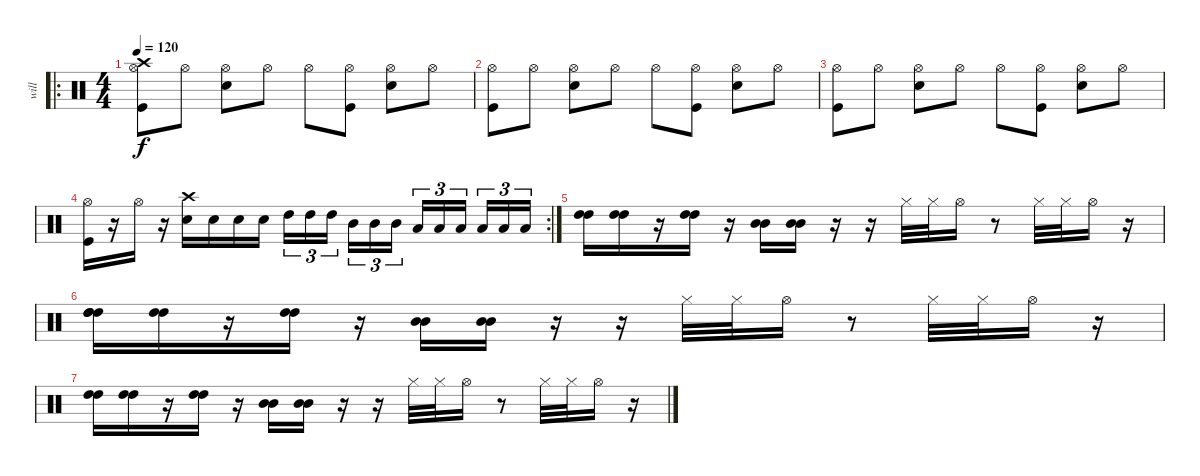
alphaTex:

\track ("will" "will") {instrument percussion}
\staff {score}
\articulation defaults
\ro
\ts (4 4)
\tempo 120
\clef neutral
\ks c
("Crash high (hit)" "Hi-Hat (open)" "Kick (hit)").8{dy f} "Hi-Hat (open)".8 ("Hi-Hat (open)" "Electric Snare (hit)").8 "Hi-Hat (open)".8 "Hi-Hat (open)".8 ("Hi-Hat (open)" "Kick (hit)").8 ("Hi-Hat (open)" "Electric Snare (hit)").8 "Hi-Hat (open)".8 |
("Hi-Hat (open)" "Kick (hit)").8 "Hi-Hat (open)".8 ("Hi-Hat (open)" "Electric Snare (hit)").8 "Hi-Hat (open)".8 "Hi-Hat (open)".8 ("Hi-Hat (open)" "Kick (hit)").8 ("Hi-Hat (open)" "Electric Snare (hit)").8 "Hi-Hat (open)".8 |
("Hi-Hat (open)" "Kick (hit)").8 "Hi-Hat (open)".8 ("Hi-Hat (open)" "Electric Snare (hit)").8 "Hi-Hat (open)".8 "Hi-Hat (open)".8 ("Hi-Hat (open)" "Kick (hit)").8 ("Hi-Hat (open)" "Electric Snare (hit)").8 "Hi-Hat (open)".8 |
\rc 2
("Hi-Hat (open)" "Kick (hit)").16 r.16 "Hi-Hat (open)".16 r.16 ("Crash high (hit)" "Electric Snare (hit)").16 "Electric Snare (hit)".16 "Electric Snare (hit)".16 "Electric Snare (hit)".16 "High Tom (hit)".16{tu (3 2)} "High Tom (hit)".16{tu (3 2)} "High Tom (hit)".16{tu (3 2)} "Mid Tom (hit)".16{tu (3 2)} "Mid Tom (hit)".16{tu (3 2)} "Mid Tom (hit)".16{tu (3 2)} "Low Tom (hit)".16{tu (3 2)} "Low Tom (hit)".16{tu (3 2)} "Low Tom (hit)".16{tu (3 2)} "Low Tom (hit)".16{tu (3 2)} "Low Tom (hit)".16{tu (3 2)} "Low Tom (hit)".16{tu (3 2)} |
("High Tom (hit)" "High Tom (hit)").16 ("High Tom (hit)" "High Tom (hit)").16 r.16 ("High Tom (hit)" "High Tom (hit)").16 r.16 ("Mid Tom (hit)" "Mid Tom (hit)").16 ("Mid Tom (hit)" "Mid Tom (hit)").16 r.16 r.16 "Hi-Hat (closed)".32 "Hi-Hat (closed)".32 "Hi-Hat (open)".16 r.8 "Hi-Hat (closed)".32 "Hi-Hat (closed)".32 "Hi-Hat (open)".16 r.16 |
("High Tom (hit)" "High Tom (hit)" "High Tom (hit)").16 ("High Tom (hit)" "High Tom (hit)").16 r.16 ("High Tom (hit)" "High Tom (hit)").16 r.16 ("Mid Tom (hit)" "Mid Tom (hit)").16 ("Mid Tom (hit)" "Mid Tom (hit)").16 r.16 r.16 "Hi-Hat (closed)".32 "Hi-Hat (closed)".32 "Hi-Hat (open)".16 r.8 "Hi-Hat (closed)".32 "Hi-Hat (closed)".32 "Hi-Hat (open)".16 r.16 |
("High Tom (hit)" "High Tom (hit)").16 ("High Tom (hit)" "High Tom (hit)").16 r.16 ("High Tom (hit)" "High Tom (hit)").16 r.16 ("Mid Tom (hit)" "Mid Tom (hit)").16 ("Mid Tom (hit)" "Mid Tom (hit)").16 r.16 r.16 "Hi-Hat (closed)".32 "Hi-Hat (closed)".32 "Hi-Hat (open)".16 r.8 "Hi-Hat (closed)".32 "Hi-Hat (closed)".32 "Hi-Hat (open)".16 r.16
